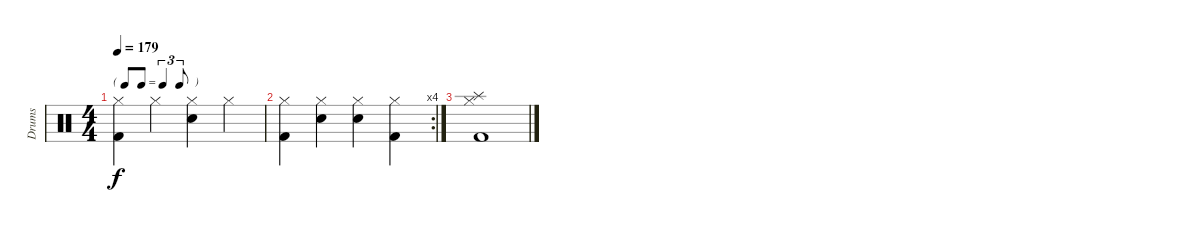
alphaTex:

\track ("Drums" "Drums") {instrument percussion}
\staff {score}
\articulation defaults
\ts (4 4)
\tf triplet8th
\tempo 179
\clef neutral
\ks c
("Hi-Hat (closed)" "Kick (hit) 2").4{dy f} "Hi-Hat (closed)".4 ("Hi-Hat (closed)" "Snare (hit) 2").4 "Hi-Hat (closed)".4 |
\rc 4
("Hi-Hat (closed)" "Kick (hit) 2").4 ("Hi-Hat (closed)" "Snare (hit) 2").4 ("Hi-Hat (closed)" "Snare (hit) 2").4 ("Hi-Hat (closed)" "Kick (hit) 2").4 |
("Hi-Hat (closed)" "Splash (hit)" "Kick (hit) 2").1
